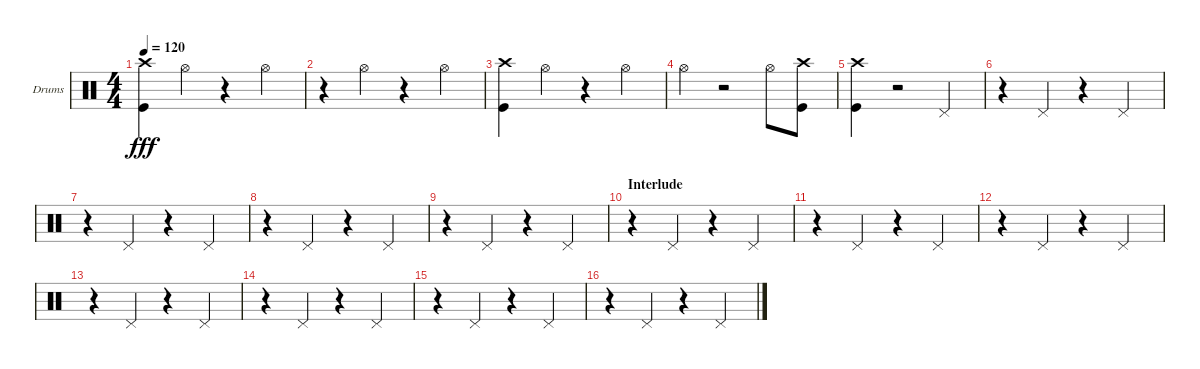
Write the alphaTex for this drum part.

\bracketExtendMode groupsimilarinstruments
\firstSystemTrackNameOrientation horizontal
\otherSystemsTrackNameOrientation horizontal
\track ("Drumkit" "Drums") {instrument percussion}
\staff {score}
\articulation defaults
\ts (4 4)
\tempo 120
\clef neutral
\ks c
("Crash high (hit)" "Kick (hit)").4{dy fff} "Hi-Hat (open)".4 r.4 "Hi-Hat (open)".4 |
r.4 "Hi-Hat (open)".4 r.4 "Hi-Hat (open)".4 |
("Kick (hit)" "Crash high (hit)").4 "Hi-Hat (open)".4 r.4 "Hi-Hat (open)".4 |
"Hi-Hat (open)".4 r.2 "Hi-Hat (open)".8 ("Kick (hit)" "Crash high (hit)").8 |
("Crash high (hit)" "Kick (hit)").4 r.2 "Pedal Hi-Hat (hit)".4 |
r.4 "Pedal Hi-Hat (hit)".4 r.4 "Pedal Hi-Hat (hit)".4 |
r.4 "Pedal Hi-Hat (hit)".4 r.4 "Pedal Hi-Hat (hit)".4 |
r.4 "Pedal Hi-Hat (hit)".4 r.4 "Pedal Hi-Hat (hit)".4 |
r.4 "Pedal Hi-Hat (hit)".4 r.4 "Pedal Hi-Hat (hit)".4 |
\section ("" "Interlude")
r.4 "Pedal Hi-Hat (hit)".4 r.4 "Pedal Hi-Hat (hit)".4 |
r.4 "Pedal Hi-Hat (hit)".4 r.4 "Pedal Hi-Hat (hit)".4 |
r.4 "Pedal Hi-Hat (hit)".4 r.4 "Pedal Hi-Hat (hit)".4 |
r.4 "Pedal Hi-Hat (hit)".4 r.4 "Pedal Hi-Hat (hit)".4 |
r.4 "Pedal Hi-Hat (hit)".4 r.4 "Pedal Hi-Hat (hit)".4 |
r.4 "Pedal Hi-Hat (hit)".4 r.4 "Pedal Hi-Hat (hit)".4 |
r.4 "Pedal Hi-Hat (hit)".4 r.4 "Pedal Hi-Hat (hit)".4
